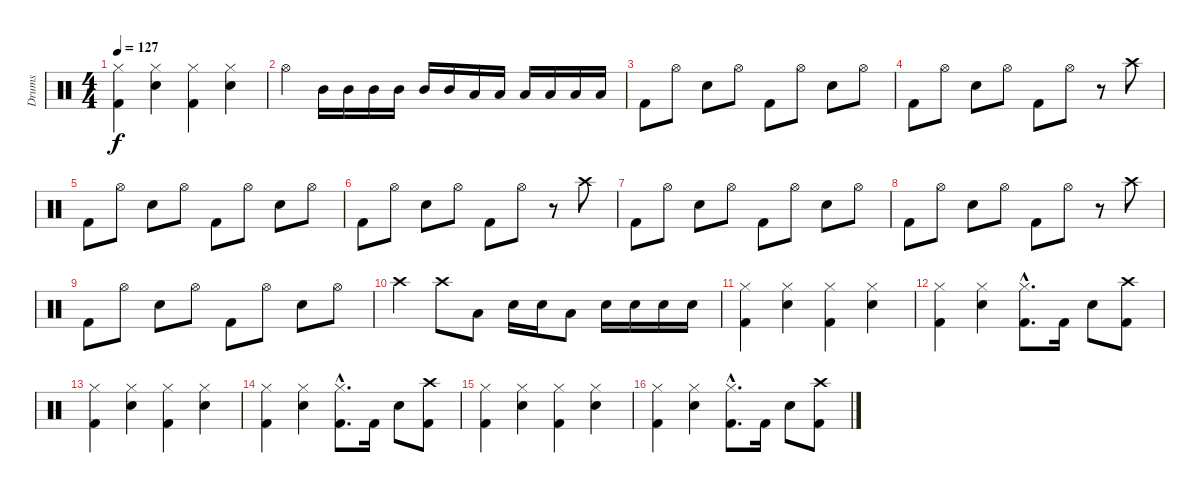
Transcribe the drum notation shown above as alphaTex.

\track ("Drums" "Drums") {instrument percussion}
\staff {score}
\articulation defaults
\ts (4 4)
\tempo 127
\clef neutral
\ks c
("Hi-Hat (closed)" "Kick (hit) 2").4{dy f} ("Hi-Hat (closed)" "Snare (hit) 2").4 ("Hi-Hat (closed)" "Kick (hit) 2").4 ("Hi-Hat (closed)" "Snare (hit) 2").4 |
"Hi-Hat (open)".4 "Mid Tom (hit)".16 "Mid Tom (hit)".16 "Mid Tom (hit)".16 "Mid Tom (hit)".16 "Mid Tom (hit)".16 "Mid Tom (hit)".16 "Low Tom (hit)".16 "Low Tom (hit)".16 "Low Tom (hit)".16 "Low Tom (hit)".16 "Low Tom (hit)".16 "Low Tom (hit)".16 |
"Kick (hit) 2".8 "Hi-Hat (open)".8 "Snare (hit) 2".8 "Hi-Hat (open)".8 "Kick (hit) 2".8 "Hi-Hat (open)".8 "Snare (hit) 2".8 "Hi-Hat (open)".8 |
"Kick (hit) 2".8 "Hi-Hat (open)".8 "Snare (hit) 2".8 "Hi-Hat (open)".8 "Kick (hit) 2".8 "Hi-Hat (open)".8 r.8 "Crash high (hit)".8 |
"Kick (hit) 2".8 "Hi-Hat (open)".8 "Snare (hit) 2".8 "Hi-Hat (open)".8 "Kick (hit) 2".8 "Hi-Hat (open)".8 "Snare (hit) 2".8 "Hi-Hat (open)".8 |
"Kick (hit) 2".8 "Hi-Hat (open)".8 "Snare (hit) 2".8 "Hi-Hat (open)".8 "Kick (hit) 2".8 "Hi-Hat (open)".8 r.8 "Crash high (hit)".8 |
"Kick (hit) 2".8 "Hi-Hat (open)".8 "Snare (hit) 2".8 "Hi-Hat (open)".8 "Kick (hit) 2".8 "Hi-Hat (open)".8 "Snare (hit) 2".8 "Hi-Hat (open)".8 |
"Kick (hit) 2".8 "Hi-Hat (open)".8 "Snare (hit) 2".8 "Hi-Hat (open)".8 "Kick (hit) 2".8 "Hi-Hat (open)".8 r.8 "Crash high (hit)".8 |
"Kick (hit) 2".8 "Hi-Hat (open)".8 "Snare (hit) 2".8 "Hi-Hat (open)".8 "Kick (hit) 2".8 "Hi-Hat (open)".8 "Snare (hit) 2".8 "Hi-Hat (open)".8 |
"Crash high (hit)".4 "Crash high (hit)".8 "Low Tom (hit)".8 "Snare (hit) 2".16 "Snare (hit) 2".16 "Low Tom (hit)".8 "Snare (hit) 2".16 "Snare (hit) 2".16 "Snare (hit) 2".16 "Snare (hit) 2".16 |
("Hi-Hat (closed)" "Kick (hit) 2").4 ("Hi-Hat (closed)" "Snare (hit) 2").4 ("Hi-Hat (closed)" "Kick (hit) 2").4 ("Hi-Hat (closed)" "Snare (hit) 2").4 |
("Hi-Hat (closed)" "Kick (hit) 2").4 ("Hi-Hat (closed)" "Snare (hit) 2").4 ("Hi-Hat (closed)" "Kick (hit) 2"{hac}).8{d} "Kick (hit) 2".16 "Snare (hit) 2".8 ("Crash high (hit)" "Kick (hit) 2").8 |
("Hi-Hat (closed)" "Kick (hit) 2").4 ("Hi-Hat (closed)" "Snare (hit) 2").4 ("Hi-Hat (closed)" "Kick (hit) 2").4 ("Hi-Hat (closed)" "Snare (hit) 2").4 |
("Hi-Hat (closed)" "Kick (hit) 2").4 ("Hi-Hat (closed)" "Snare (hit) 2").4 ("Hi-Hat (closed)" "Kick (hit) 2"{hac}).8{d} "Kick (hit) 2".16 "Snare (hit) 2".8 ("Crash high (hit)" "Kick (hit) 2").8 |
("Hi-Hat (closed)" "Kick (hit) 2").4 ("Hi-Hat (closed)" "Snare (hit) 2").4 ("Hi-Hat (closed)" "Kick (hit) 2").4 ("Hi-Hat (closed)" "Snare (hit) 2").4 |
("Hi-Hat (closed)" "Kick (hit) 2").4 ("Hi-Hat (closed)" "Snare (hit) 2").4 ("Hi-Hat (closed)" "Kick (hit) 2"{hac}).8{d} "Kick (hit) 2".16 "Snare (hit) 2".8 ("Crash high (hit)" "Kick (hit) 2").8
